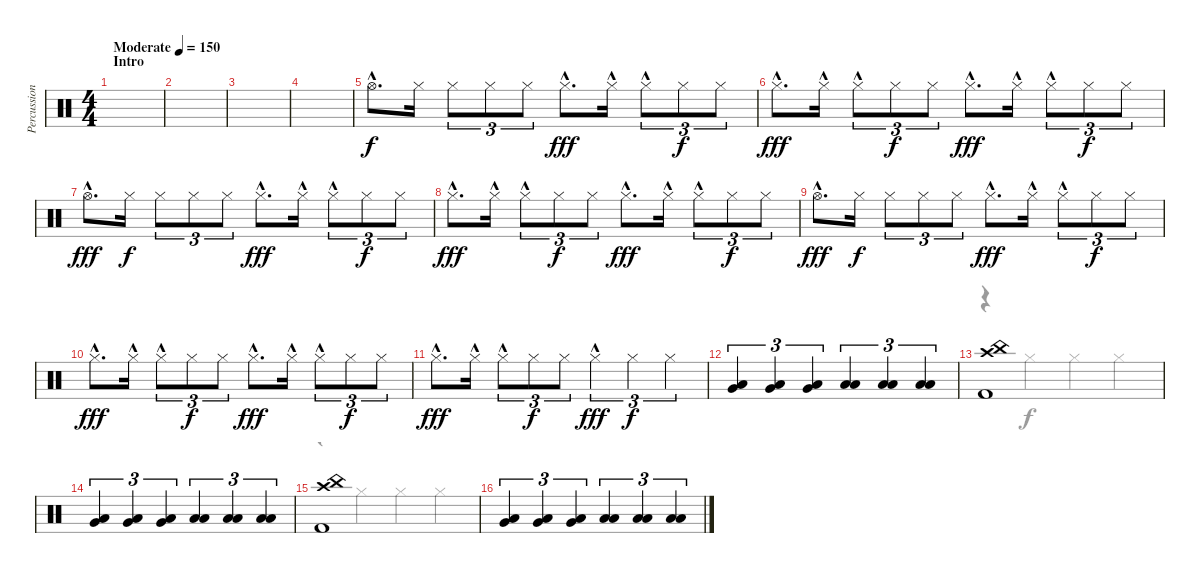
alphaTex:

\track ("Percussion" "Percussion") {instrument percussion}
\staff {score}
\articulation defaults
\voice
\ts (4 4)
\section ("" "Intro")
\tempo (150 "Moderate")
\clef neutral
\ks c
|
|
|
|
"Hi-Hat (open)"{hac}.8{d} "Hi-Hat (closed)".16{dy f} "Hi-Hat (closed)".8{tu (3 2)} "Hi-Hat (closed)".8{tu (3 2)} "Hi-Hat (closed)".8{tu (3 2)} "Hi-Hat (closed)"{hac}.8{d dy fff} "Hi-Hat (closed)"{hac}.16 "Hi-Hat (closed)"{hac}.8{tu (3 2)} "Hi-Hat (closed)".8{tu (3 2) dy f} "Hi-Hat (closed)".8{tu (3 2)} |
"Hi-Hat (closed)"{hac}.8{d dy fff} "Hi-Hat (closed)"{hac}.16 "Hi-Hat (closed)"{hac}.8{tu (3 2)} "Hi-Hat (closed)".8{tu (3 2) dy f} "Hi-Hat (closed)".8{tu (3 2)} "Hi-Hat (closed)"{hac}.8{d dy fff} "Hi-Hat (closed)"{hac}.16 "Hi-Hat (closed)"{hac}.8{tu (3 2)} "Hi-Hat (closed)".8{tu (3 2) dy f} "Hi-Hat (closed)".8{tu (3 2)} |
"Hi-Hat (open)"{hac}.8{d dy fff} "Hi-Hat (closed)".16{dy f} "Hi-Hat (closed)".8{tu (3 2)} "Hi-Hat (closed)".8{tu (3 2)} "Hi-Hat (closed)".8{tu (3 2)} "Hi-Hat (closed)"{hac}.8{d dy fff} "Hi-Hat (closed)"{hac}.16 "Hi-Hat (closed)"{hac}.8{tu (3 2)} "Hi-Hat (closed)".8{tu (3 2) dy f} "Hi-Hat (closed)".8{tu (3 2)} |
"Hi-Hat (closed)"{hac}.8{d dy fff} "Hi-Hat (closed)"{hac}.16 "Hi-Hat (closed)"{hac}.8{tu (3 2)} "Hi-Hat (closed)".8{tu (3 2) dy f} "Hi-Hat (closed)".8{tu (3 2)} "Hi-Hat (closed)"{hac}.8{d dy fff} "Hi-Hat (closed)"{hac}.16 "Hi-Hat (closed)"{hac}.8{tu (3 2)} "Hi-Hat (closed)".8{tu (3 2) dy f} "Hi-Hat (closed)".8{tu (3 2)} |
"Hi-Hat (open)"{hac}.8{d dy fff} "Hi-Hat (closed)".16{dy f} "Hi-Hat (closed)".8{tu (3 2)} "Hi-Hat (closed)".8{tu (3 2)} "Hi-Hat (closed)".8{tu (3 2)} "Hi-Hat (closed)"{hac}.8{d dy fff} "Hi-Hat (closed)"{hac}.16 "Hi-Hat (closed)"{hac}.8{tu (3 2)} "Hi-Hat (closed)".8{tu (3 2) dy f} "Hi-Hat (closed)".8{tu (3 2)} |
"Hi-Hat (closed)"{hac}.8{d dy fff} "Hi-Hat (closed)"{hac}.16 "Hi-Hat (closed)"{hac}.8{tu (3 2)} "Hi-Hat (closed)".8{tu (3 2) dy f} "Hi-Hat (closed)".8{tu (3 2)} "Hi-Hat (closed)"{hac}.8{d dy fff} "Hi-Hat (closed)"{hac}.16 "Hi-Hat (closed)"{hac}.8{tu (3 2)} "Hi-Hat (closed)".8{tu (3 2) dy f} "Hi-Hat (closed)".8{tu (3 2)} |
"Hi-Hat (closed)"{hac}.8{d dy fff} "Hi-Hat (closed)"{hac}.16 "Hi-Hat (closed)"{hac}.8{tu (3 2)} "Hi-Hat (closed)".8{tu (3 2) dy f} "Hi-Hat (closed)".8{tu (3 2)} "Hi-Hat (closed)"{hac}.4{tu (3 2) dy fff} "Hi-Hat (closed)".4{tu (3 2) dy f} "Hi-Hat (closed)".4{tu (3 2)} |
("Very Low Tom (hit)" "Low Floor Tom (hit)").4{tu (3 2)} ("Very Low Tom (hit)" "Low Floor Tom (hit)").4{tu (3 2)} ("Very Low Tom (hit)" "Low Floor Tom (hit)").4{tu (3 2)} ("Low Floor Tom (hit)" "Low Tom (hit)").4{tu (3 2)} ("Low Floor Tom (hit)" "Low Tom (hit)").4{tu (3 2)} ("Low Floor Tom (hit)" "Low Tom (hit)").4{tu (3 2)} |
("China (hit)" "Kick (hit) 2" "Crash high (hit)").1 |
("Very Low Tom (hit)" "Low Floor Tom (hit)").4{tu (3 2)} ("Very Low Tom (hit)" "Low Floor Tom (hit)").4{tu (3 2)} ("Very Low Tom (hit)" "Low Floor Tom (hit)").4{tu (3 2)} ("Low Floor Tom (hit)" "Low Tom (hit)").4{tu (3 2)} ("Low Floor Tom (hit)" "Low Tom (hit)").4{tu (3 2)} ("Low Floor Tom (hit)" "Low Tom (hit)").4{tu (3 2)} |
("China (hit)" "Kick (hit) 2" "Crash high (hit)").1 |
("Very Low Tom (hit)" "Low Floor Tom (hit)").4{tu (3 2)} ("Very Low Tom (hit)" "Low Floor Tom (hit)").4{tu (3 2)} ("Very Low Tom (hit)" "Low Floor Tom (hit)").4{tu (3 2)} ("Low Floor Tom (hit)" "Low Tom (hit)").4{tu (3 2)} ("Low Floor Tom (hit)" "Low Tom (hit)").4{tu (3 2)} ("Low Floor Tom (hit)" "Low Tom (hit)").4{tu (3 2)}
\voice
\clef neutral
\ottava regular
\simile none
\ks c
|
|
|
|
|
|
|
|
|
|
|
|
r.4 "Hi-Hat (closed)".4 "Hi-Hat (closed)".4 "Hi-Hat (closed)".4 |
|
r.4 "Hi-Hat (closed)".4 "Hi-Hat (closed)".4 "Hi-Hat (closed)".4 |
